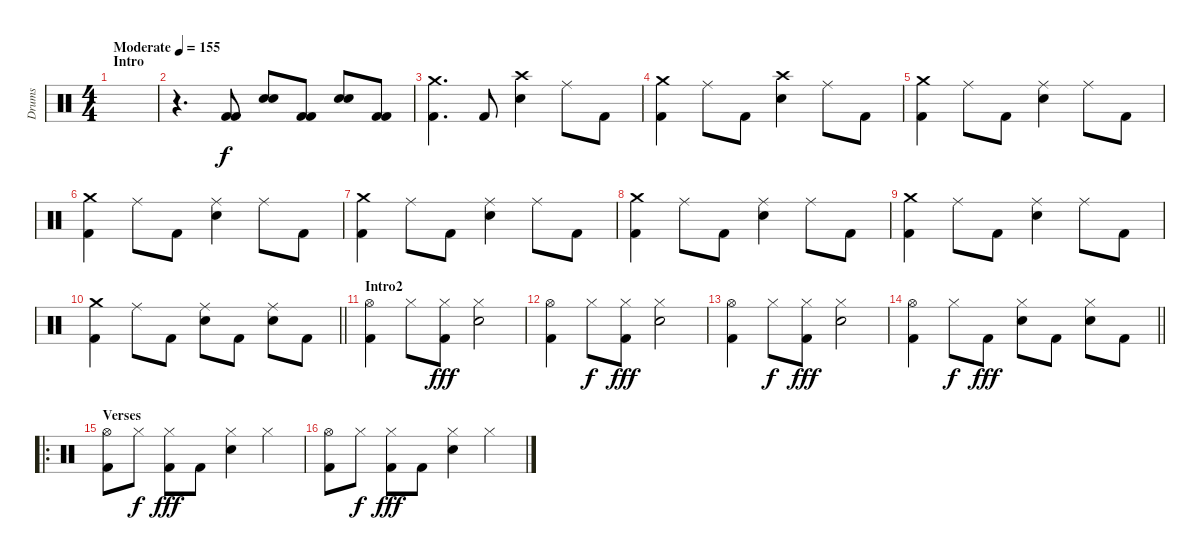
\track ("Drums" "Drums") {instrument percussion}
\staff {score}
\articulation defaults
\ts (4 4)
\section ("" "Intro")
\tempo (155 "Moderate")
\clef neutral
\ks c
|
r.4{d} ("Kick (hit) 2" "Kick (hit) 2").8 ("Electric Snare (hit)" "Electric Snare (hit)").8 ("Kick (hit) 2" "Kick (hit) 2").8 ("Electric Snare (hit)" "Electric Snare (hit)").8 ("Kick (hit) 2" "Kick (hit) 2").8 |
("Crash medium (hit)" "Kick (hit) 2").4{d} "Kick (hit) 2".8 ("Crash high (hit)" "Electric Snare (hit)").4 "Ride (middle)".8 "Kick (hit) 2".8 |
("Crash medium (hit)" "Kick (hit) 2").4 "Ride (middle)".8 "Kick (hit) 2".8 ("Crash high (hit)" "Electric Snare (hit)").4 "Ride (middle)".8 "Kick (hit) 2".8 |
("Crash medium (hit)" "Kick (hit) 2").4 "Ride (middle)".8 "Kick (hit) 2".8 ("Ride (middle)" "Electric Snare (hit)").4 "Ride (middle)".8 "Kick (hit) 2".8 |
("Crash medium (hit)" "Kick (hit) 2").4 "Ride (middle)".8 "Kick (hit) 2".8 ("Ride (middle)" "Electric Snare (hit)").4 "Ride (middle)".8 "Kick (hit) 2".8 |
("Crash medium (hit)" "Kick (hit) 2").4 "Ride (middle)".8 "Kick (hit) 2".8 ("Ride (middle)" "Electric Snare (hit)").4 "Ride (middle)".8 "Kick (hit) 2".8 |
("Crash medium (hit)" "Kick (hit) 2").4 "Ride (middle)".8 "Kick (hit) 2".8 ("Ride (middle)" "Electric Snare (hit)").4 "Ride (middle)".8 "Kick (hit) 2".8 |
("Crash medium (hit)" "Kick (hit) 2").4 "Ride (middle)".8 "Kick (hit) 2".8 ("Ride (middle)" "Electric Snare (hit)").4 "Ride (middle)".8 "Kick (hit) 2".8 |
\barLineRight lightlight
("Crash medium (hit)" "Kick (hit) 2").4 "Ride (middle)".8 "Kick (hit) 2".8 ("Ride (middle)" "Electric Snare (hit)").8 "Kick (hit) 2".8 ("Ride (middle)" "Electric Snare (hit)").8 "Kick (hit) 2".8 |
\section ("" "Intro2")
("Hi-Hat (open)" "Kick (hit) 2").4 "Hi-Hat (closed)".8{dy f} ("Hi-Hat (closed)" "Kick (hit) 2").8{dy fff} ("Hi-Hat (closed)" "Electric Snare (hit)").2 |
("Hi-Hat (open)" "Kick (hit) 2").4 "Hi-Hat (closed)".8{dy f} ("Hi-Hat (closed)" "Kick (hit) 2").8{dy fff} ("Hi-Hat (closed)" "Electric Snare (hit)").2 |
("Hi-Hat (open)" "Kick (hit) 2").4 "Hi-Hat (closed)".8{dy f} ("Hi-Hat (closed)" "Kick (hit) 2").8{dy fff} ("Hi-Hat (closed)" "Electric Snare (hit)").2 |
\barLineRight lightlight
("Hi-Hat (open)" "Kick (hit) 2").4 "Hi-Hat (closed)".8{dy f} "Kick (hit) 2".8{dy fff} ("Hi-Hat (closed)" "Electric Snare (hit)").8 "Kick (hit) 2".8 ("Hi-Hat (closed)" "Electric Snare (hit)").8 "Kick (hit) 2".8 |
\ro
\section ("" "Verses")
("Hi-Hat (open)" "Kick (hit) 2").8 "Hi-Hat (closed)".8{dy f} ("Hi-Hat (closed)" "Kick (hit) 2").8{dy fff} "Kick (hit) 2".8 ("Hi-Hat (closed)" "Electric Snare (hit)").4 "Hi-Hat (closed)".4 |
("Hi-Hat (open)" "Kick (hit) 2").8 "Hi-Hat (closed)".8{dy f} ("Hi-Hat (closed)" "Kick (hit) 2").8{dy fff} "Kick (hit) 2".8 ("Hi-Hat (closed)" "Electric Snare (hit)").4 "Hi-Hat (closed)".4
